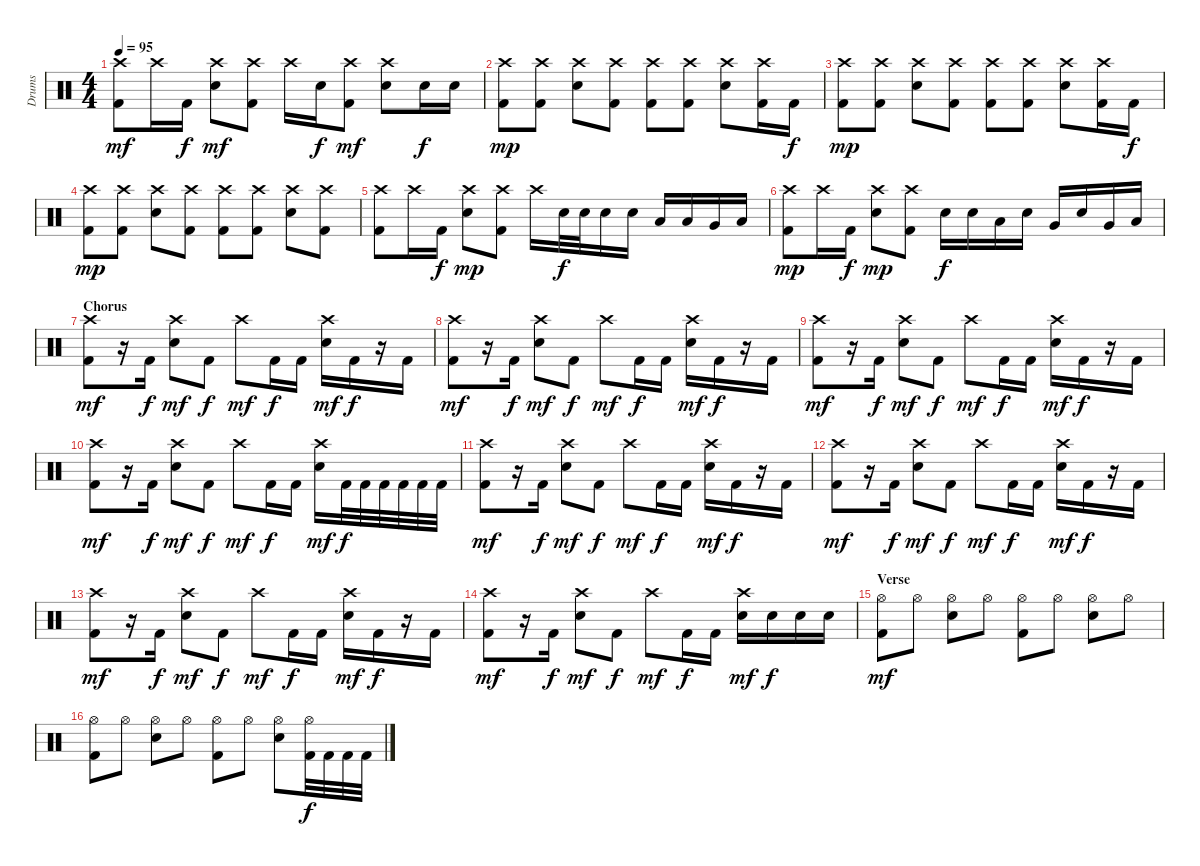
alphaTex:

\track ("Drums" "Drums") {instrument percussion}
\staff {score}
\articulation defaults
\ts (4 4)
\tempo 95
\clef neutral
\ks c
("Crash high (hit)" "Kick (hit) 2").8{dy mf} "Crash high (hit)".16 "Kick (hit) 2".16{dy f} ("Crash high (hit)" "Electric Snare (hit)").8{dy mf} ("Crash high (hit)" "Kick (hit) 2").8 "Crash high (hit)".16 "Electric Snare (hit)".16{dy f} ("Crash high (hit)" "Kick (hit) 2").8{dy mf} ("Crash high (hit)" "Electric Snare (hit)").8 "Electric Snare (hit)".16{dy f} "Electric Snare (hit)".16 |
("Crash high (hit)" "Kick (hit) 2").8{dy mp} ("Crash high (hit)" "Kick (hit) 2").8 ("Crash high (hit)" "Electric Snare (hit)").8 ("Crash high (hit)" "Kick (hit) 2").8 ("Crash high (hit)" "Kick (hit) 2").8 ("Crash high (hit)" "Kick (hit) 2").8 ("Crash high (hit)" "Electric Snare (hit)").8 ("Crash high (hit)" "Kick (hit) 2").16 "Kick (hit) 2".16{dy f} |
("Crash high (hit)" "Kick (hit) 2").8{dy mp} ("Crash high (hit)" "Kick (hit) 2").8 ("Crash high (hit)" "Electric Snare (hit)").8 ("Crash high (hit)" "Kick (hit) 2").8 ("Crash high (hit)" "Kick (hit) 2").8 ("Crash high (hit)" "Kick (hit) 2").8 ("Crash high (hit)" "Electric Snare (hit)").8 ("Crash high (hit)" "Kick (hit) 2").16 "Kick (hit) 2".16{dy f} |
("Crash high (hit)" "Kick (hit) 2").8{dy mp} ("Crash high (hit)" "Kick (hit) 2").8 ("Crash high (hit)" "Electric Snare (hit)").8 ("Crash high (hit)" "Kick (hit) 2").8 ("Crash high (hit)" "Kick (hit) 2").8 ("Crash high (hit)" "Kick (hit) 2").8 ("Crash high (hit)" "Electric Snare (hit)").8 ("Crash high (hit)" "Kick (hit) 2").8 |
("Crash high (hit)" "Kick (hit) 2").8 "Crash high (hit)".16 "Kick (hit) 2".16{dy f} ("Crash high (hit)" "Electric Snare (hit)").8{dy mp} ("Crash high (hit)" "Kick (hit) 2").8 "Crash high (hit)".16 "Electric Snare (hit)".32{dy f} "Electric Snare (hit)".32 "Electric Snare (hit)".16 "Electric Snare (hit)".16 "Low Tom (hit)".16 "Low Tom (hit)".16 "Very Low Tom (hit)".16 "Low Floor Tom (hit)".16 |
("Crash high (hit)" "Kick (hit) 2").8{dy mp} "Crash high (hit)".16 "Kick (hit) 2".16{dy f} ("Crash high (hit)" "Electric Snare (hit)").8{dy mp} ("Crash high (hit)" "Kick (hit) 2").8 "Electric Snare (hit)".16{dy f} "Electric Snare (hit)".16 "Low Tom (hit)".16 "Electric Snare (hit)".16 "Very Low Tom (hit)".16 "Electric Snare (hit)".16 "Very Low Tom (hit)".16 "Low Floor Tom (hit)".16 |
\section ("" "Chorus")
("Crash high (hit)" "Kick (hit) 2").8{dy mf} r.16 "Kick (hit) 2".16{dy f} ("Crash high (hit)" "Electric Snare (hit)").8{dy mf} "Kick (hit) 2".8{dy f} "Crash high (hit)".8{dy mf} "Kick (hit) 2".16{dy f} "Kick (hit) 2".16 ("Crash high (hit)" "Electric Snare (hit)").16{dy mf} "Kick (hit) 2".16{dy f} r.16 "Kick (hit) 2".16 |
("Crash high (hit)" "Kick (hit) 2").8{dy mf} r.16 "Kick (hit) 2".16{dy f} ("Crash high (hit)" "Electric Snare (hit)").8{dy mf} "Kick (hit) 2".8{dy f} "Crash high (hit)".8{dy mf} "Kick (hit) 2".16{dy f} "Kick (hit) 2".16 ("Crash high (hit)" "Electric Snare (hit)").16{dy mf} "Kick (hit) 2".16{dy f} r.16 "Kick (hit) 2".16 |
("Crash high (hit)" "Kick (hit) 2").8{dy mf} r.16 "Kick (hit) 2".16{dy f} ("Crash high (hit)" "Electric Snare (hit)").8{dy mf} "Kick (hit) 2".8{dy f} "Crash high (hit)".8{dy mf} "Kick (hit) 2".16{dy f} "Kick (hit) 2".16 ("Crash high (hit)" "Electric Snare (hit)").16{dy mf} "Kick (hit) 2".16{dy f} r.16 "Kick (hit) 2".16 |
("Crash high (hit)" "Kick (hit) 2").8{dy mf} r.16 "Kick (hit) 2".16{dy f} ("Crash high (hit)" "Electric Snare (hit)").8{dy mf} "Kick (hit) 2".8{dy f} "Crash high (hit)".8{dy mf} "Kick (hit) 2".16{dy f} "Kick (hit) 2".16 ("Crash high (hit)" "Electric Snare (hit)").16{dy mf} "Kick (hit) 2".32{dy f} "Kick (hit) 2".32 "Kick (hit) 2".32 "Kick (hit) 2".32 "Kick (hit) 2".32 "Kick (hit) 2".32 |
("Crash high (hit)" "Kick (hit) 2").8{dy mf} r.16 "Kick (hit) 2".16{dy f} ("Crash high (hit)" "Electric Snare (hit)").8{dy mf} "Kick (hit) 2".8{dy f} "Crash high (hit)".8{dy mf} "Kick (hit) 2".16{dy f} "Kick (hit) 2".16 ("Crash high (hit)" "Electric Snare (hit)").16{dy mf} "Kick (hit) 2".16{dy f} r.16 "Kick (hit) 2".16 |
("Crash high (hit)" "Kick (hit) 2").8{dy mf} r.16 "Kick (hit) 2".16{dy f} ("Crash high (hit)" "Electric Snare (hit)").8{dy mf} "Kick (hit) 2".8{dy f} "Crash high (hit)".8{dy mf} "Kick (hit) 2".16{dy f} "Kick (hit) 2".16 ("Crash high (hit)" "Electric Snare (hit)").16{dy mf} "Kick (hit) 2".16{dy f} r.16 "Kick (hit) 2".16 |
("Crash high (hit)" "Kick (hit) 2").8{dy mf} r.16 "Kick (hit) 2".16{dy f} ("Crash high (hit)" "Electric Snare (hit)").8{dy mf} "Kick (hit) 2".8{dy f} "Crash high (hit)".8{dy mf} "Kick (hit) 2".16{dy f} "Kick (hit) 2".16 ("Crash high (hit)" "Electric Snare (hit)").16{dy mf} "Kick (hit) 2".16{dy f} r.16 "Kick (hit) 2".16 |
("Crash high (hit)" "Kick (hit) 2").8{dy mf} r.16 "Kick (hit) 2".16{dy f} ("Crash high (hit)" "Electric Snare (hit)").8{dy mf} "Kick (hit) 2".8{dy f} "Crash high (hit)".8{dy mf} "Kick (hit) 2".16{dy f} "Kick (hit) 2".16 ("Crash high (hit)" "Electric Snare (hit)").16{dy mf} "Electric Snare (hit)".16{dy f} "Electric Snare (hit)".16 "Electric Snare (hit)".16 |
\section ("" "Verse")
("Hi-Hat (open)" "Kick (hit) 2").8{dy mf} "Hi-Hat (open)".8 ("Hi-Hat (open)" "Electric Snare (hit)").8 "Hi-Hat (open)".8 ("Hi-Hat (open)" "Kick (hit) 2").8 "Hi-Hat (open)".8 ("Hi-Hat (open)" "Electric Snare (hit)").8 "Hi-Hat (open)".8 |
("Hi-Hat (open)" "Kick (hit) 2").8 "Hi-Hat (open)".8 ("Hi-Hat (open)" "Electric Snare (hit)").8 "Hi-Hat (open)".8 ("Hi-Hat (open)" "Kick (hit) 2").8 "Hi-Hat (open)".8 ("Hi-Hat (open)" "Electric Snare (hit)").8 ("Hi-Hat (open)" "Kick (hit) 2").32{dy f} "Kick (hit) 2".32 "Kick (hit) 2".32 "Kick (hit) 2".32
